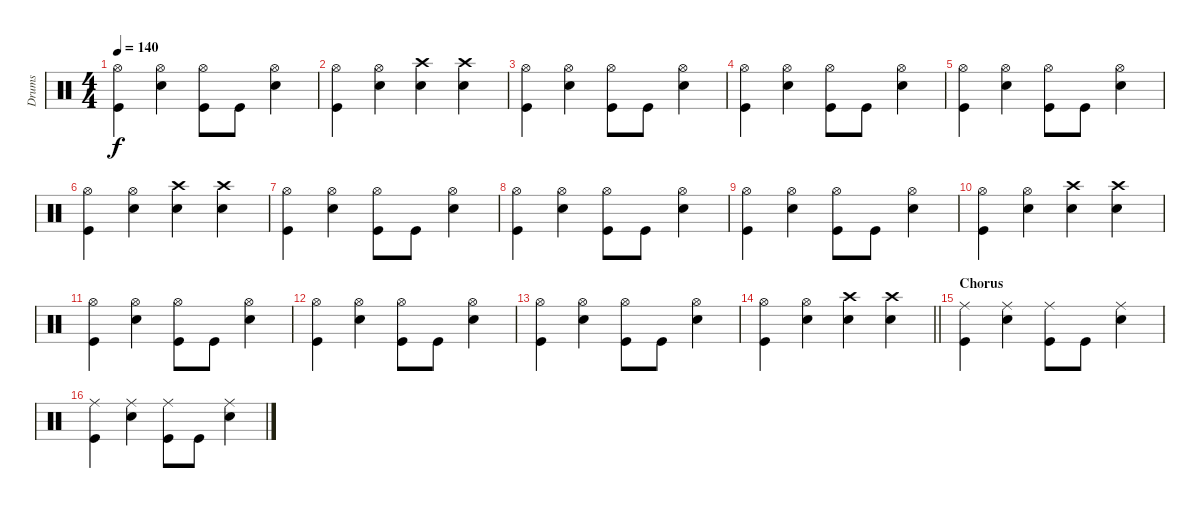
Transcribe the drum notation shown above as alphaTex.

\track ("Drums" "Drums") {instrument percussion}
\staff
\articulation defaults
\ts (4 4)
\tempo 140
\clef neutral
\ks c
("Kick (hit)" "Hi-Hat (open)").4{dy f} ("Snare (hit) 2" "Hi-Hat (open)").4 ("Kick (hit)" "Hi-Hat (open)").8 "Kick (hit)".8 ("Snare (hit) 2" "Hi-Hat (open)").4 |
("Kick (hit)" "Hi-Hat (open)").4 ("Snare (hit) 2" "Hi-Hat (open)").4 ("Snare (hit) 2" "Crash high (hit)").4 ("Snare (hit) 2" "Crash high (hit)").4 |
("Kick (hit)" "Hi-Hat (open)").4 ("Snare (hit) 2" "Hi-Hat (open)").4 ("Kick (hit)" "Hi-Hat (open)").8 "Kick (hit)".8 ("Snare (hit) 2" "Hi-Hat (open)").4 |
("Kick (hit)" "Hi-Hat (open)").4 ("Snare (hit) 2" "Hi-Hat (open)").4 ("Kick (hit)" "Hi-Hat (open)").8 "Kick (hit)".8 ("Snare (hit) 2" "Hi-Hat (open)").4 |
("Kick (hit)" "Hi-Hat (open)").4 ("Snare (hit) 2" "Hi-Hat (open)").4 ("Kick (hit)" "Hi-Hat (open)").8 "Kick (hit)".8 ("Snare (hit) 2" "Hi-Hat (open)").4 |
("Kick (hit)" "Hi-Hat (open)").4 ("Snare (hit) 2" "Hi-Hat (open)").4 ("Snare (hit) 2" "Crash high (hit)").4 ("Snare (hit) 2" "Crash high (hit)").4 |
("Kick (hit)" "Hi-Hat (open)").4 ("Snare (hit) 2" "Hi-Hat (open)").4 ("Kick (hit)" "Hi-Hat (open)").8 "Kick (hit)".8 ("Snare (hit) 2" "Hi-Hat (open)").4 |
("Kick (hit)" "Hi-Hat (open)").4 ("Snare (hit) 2" "Hi-Hat (open)").4 ("Kick (hit)" "Hi-Hat (open)").8 "Kick (hit)".8 ("Snare (hit) 2" "Hi-Hat (open)").4 |
("Kick (hit)" "Hi-Hat (open)").4 ("Snare (hit) 2" "Hi-Hat (open)").4 ("Kick (hit)" "Hi-Hat (open)").8 "Kick (hit)".8 ("Snare (hit) 2" "Hi-Hat (open)").4 |
("Kick (hit)" "Hi-Hat (open)").4 ("Snare (hit) 2" "Hi-Hat (open)").4 ("Snare (hit) 2" "Crash high (hit)").4 ("Snare (hit) 2" "Crash high (hit)").4 |
("Kick (hit)" "Hi-Hat (open)").4 ("Snare (hit) 2" "Hi-Hat (open)").4 ("Kick (hit)" "Hi-Hat (open)").8 "Kick (hit)".8 ("Snare (hit) 2" "Hi-Hat (open)").4 |
("Kick (hit)" "Hi-Hat (open)").4 ("Snare (hit) 2" "Hi-Hat (open)").4 ("Kick (hit)" "Hi-Hat (open)").8 "Kick (hit)".8 ("Snare (hit) 2" "Hi-Hat (open)").4 |
("Kick (hit)" "Hi-Hat (open)").4 ("Snare (hit) 2" "Hi-Hat (open)").4 ("Kick (hit)" "Hi-Hat (open)").8 "Kick (hit)".8 ("Snare (hit) 2" "Hi-Hat (open)").4 |
\barLineRight lightlight
("Kick (hit)" "Hi-Hat (open)").4 ("Snare (hit) 2" "Hi-Hat (open)").4 ("Snare (hit) 2" "Crash high (hit)").4 ("Snare (hit) 2" "Crash high (hit)").4 |
\section ("" "Chorus")
("Kick (hit)" "Ride (middle)").4 ("Snare (hit) 2" "Ride (middle)").4 ("Kick (hit)" "Ride (middle)").8 "Kick (hit)".8 ("Snare (hit) 2" "Ride (middle)").4 |
("Kick (hit)" "Ride (middle)").4 ("Snare (hit) 2" "Ride (middle)").4 ("Kick (hit)" "Ride (middle)").8 "Kick (hit)".8 ("Snare (hit) 2" "Ride (middle)").4
